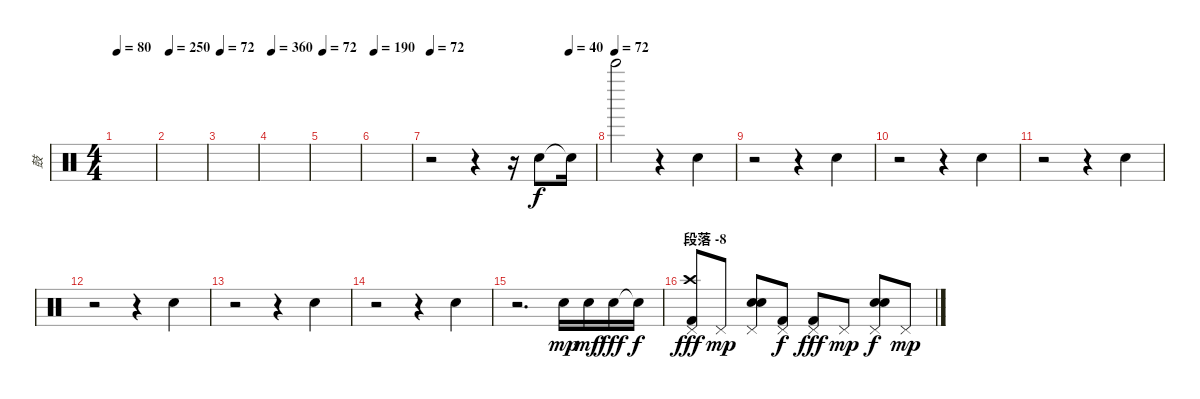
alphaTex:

\track ("鼓" "鼓") {instrument percussion}
\staff {score}
\articulation defaults
\ts (4 4)
\tempo 80
\tempo 72
\tempo 80
\clef neutral
\ks c
|
\tempo 250
|
\tempo 72
|
\tempo 360
|
\tempo 72
|
\tempo 190
|
\tempo 72
\tempo (40 0.84375)
r.2 r.4 r.16 "Hand Clap (hit)".8 "Snare (hit)"{t}.16{dy f} |
\tempo (72)
"Bell Tree (hit)".2 r.4 "Hand Clap (hit)".4 |
r.2 r.4 "Hand Clap (hit)".4 |
r.2 r.4 "Hand Clap (hit)".4 |
r.2 r.4 "Hand Clap (hit)".4 |
r.2 r.4 "Hand Clap (hit)".4 |
r.2 r.4 "Hand Clap (hit)".4 |
r.2 r.4 "Hand Clap (hit)".4 |
r.2{d} "Electric Snare (hit)".16{dy mp} "Electric Snare (hit)".16{dy mf} "Electric Snare (hit)".16{dy fff} "Electric Snare (hit)"{t}.16{dy f} |
\section ("" "段落 -8")
("Kick (hit) 2" "Crash high (hit)" "Pedal Hi-Hat (hit)").8{dy fff} "Pedal Hi-Hat (hit)".8{dy mp} ("Hand Clap (hit)" "Electric Snare (hit)" "Pedal Hi-Hat (hit)").8 ("Kick (hit) 2" "Pedal Hi-Hat (hit)").8{dy f} ("Kick (hit) 2" "Pedal Hi-Hat (hit)").8{dy fff} "Pedal Hi-Hat (hit)".8{dy mp} ("Hand Clap (hit)" "Electric Snare (hit)" "Pedal Hi-Hat (hit)").8{dy f} "Pedal Hi-Hat (hit)".8{dy mp}
